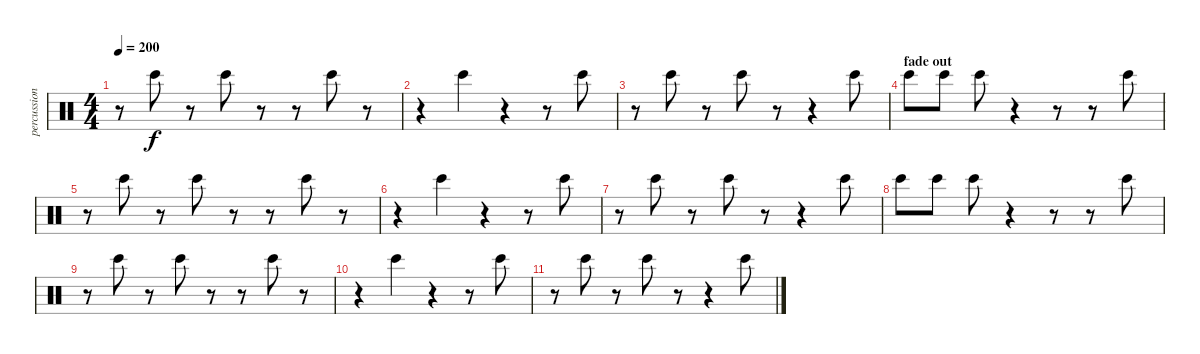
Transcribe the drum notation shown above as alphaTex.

\track ("percussion" "percussion") {instrument percussion}
\staff {score}
\articulation defaults
\ts (4 4)
\tempo 200
\clef neutral
\ks c
r.8{dy f} "Bongo High (hit)".8 r.8 "Bongo High (hit)".8 r.8 r.8 "Bongo High (hit)".8 r.8 |
r.4 "Bongo High (hit)".4 r.4 r.8 "Bongo High (hit)".8 |
r.8 "Bongo High (hit)".8 r.8 "Bongo High (hit)".8 r.8 r.4 "Bongo High (hit)".8 |
\section ("" "fade out")
"Bongo High (hit)".8 "Bongo High (hit)".8 "Bongo High (hit)".8 r.4 r.8 r.8 "Bongo High (hit)".8 |
r.8 "Bongo High (hit)".8 r.8 "Bongo High (hit)".8 r.8 r.8 "Bongo High (hit)".8 r.8 |
r.4 "Bongo High (hit)".4 r.4 r.8 "Bongo High (hit)".8 |
r.8 "Bongo High (hit)".8 r.8 "Bongo High (hit)".8 r.8 r.4 "Bongo High (hit)".8 |
"Bongo High (hit)".8 "Bongo High (hit)".8 "Bongo High (hit)".8 r.4 r.8 r.8 "Bongo High (hit)".8 |
r.8 "Bongo High (hit)".8 r.8 "Bongo High (hit)".8 r.8 r.8 "Bongo High (hit)".8 r.8 |
r.4 "Bongo High (hit)".4 r.4 r.8 "Bongo High (hit)".8 |
r.8 "Bongo High (hit)".8 r.8 "Bongo High (hit)".8 r.8 r.4 "Bongo High (hit)".8
